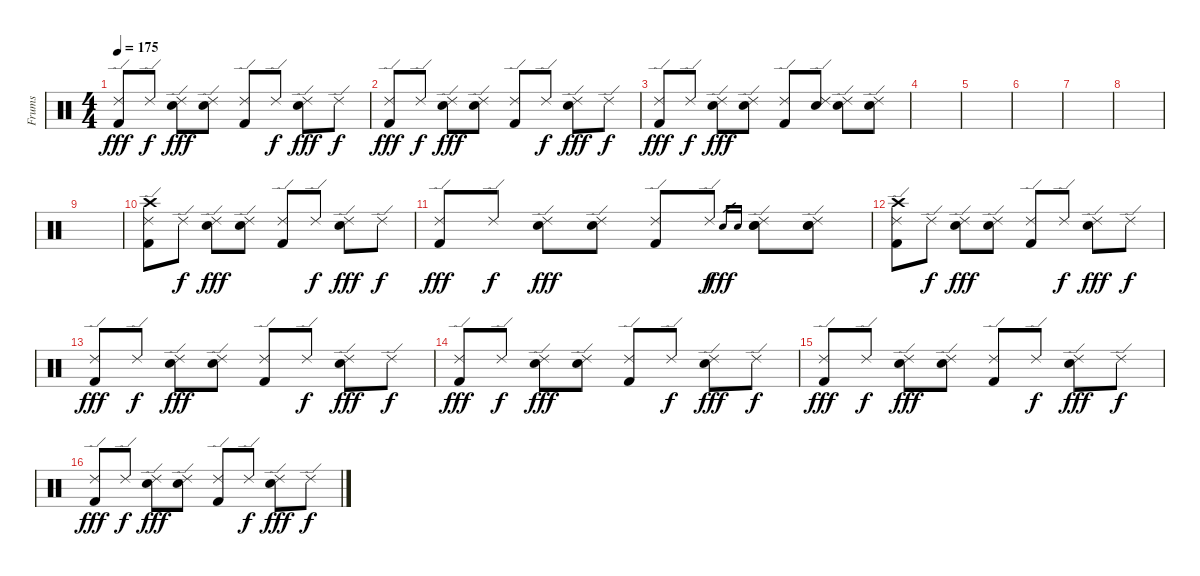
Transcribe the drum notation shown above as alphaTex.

\track ("Frums" "Frums") {instrument percussion}
\staff {score}
\articulation defaults
\ts (4 4)
\tempo 175
\clef neutral
\ks c
("Ride (edge) 2" "Kick (hit) 2").8{dy fff} "Ride (edge) 2".8{dy f} ("Ride (edge) 2" "Electric Snare (hit)").8{dy fff} ("Ride (edge) 2" "Electric Snare (hit)").8 ("Ride (edge) 2" "Kick (hit) 2").8 "Ride (edge) 2".8{dy f} ("Ride (edge) 2" "Electric Snare (hit)").8{dy fff} "Ride (edge) 2".8{dy f} |
("Ride (edge) 2" "Kick (hit) 2").8{dy fff} "Ride (edge) 2".8{dy f} ("Ride (edge) 2" "Electric Snare (hit)").8{dy fff} ("Ride (edge) 2" "Electric Snare (hit)").8 ("Ride (edge) 2" "Kick (hit) 2").8 "Ride (edge) 2".8{dy f} ("Ride (edge) 2" "Electric Snare (hit)").8{dy fff} "Ride (edge) 2".8{dy f} |
("Ride (edge) 2" "Kick (hit) 2").8{dy fff} "Ride (edge) 2".8{dy f} ("Ride (edge) 2" "Electric Snare (hit)").8{dy fff} ("Ride (edge) 2" "Electric Snare (hit)").8 ("Ride (edge) 2" "Kick (hit) 2").8 ("Ride (edge) 2" "Electric Snare (hit)").8 ("Ride (edge) 2" "Electric Snare (hit)").8 ("Ride (edge) 2" "Electric Snare (hit)").8 |
|
|
|
|
|
|
("Ride (edge) 2" "Kick (hit) 2" "Crash high (hit)").8 "Ride (edge) 2".8{dy f} ("Ride (edge) 2" "Electric Snare (hit)").8{dy fff} ("Ride (edge) 2" "Electric Snare (hit)").8 ("Ride (edge) 2" "Kick (hit) 2").8 "Ride (edge) 2".8{dy f} ("Ride (edge) 2" "Electric Snare (hit)").8{dy fff} "Ride (edge) 2".8{dy f} |
("Ride (edge) 2" "Kick (hit) 2").8{dy fff} "Ride (edge) 2".8{dy f} ("Ride (edge) 2" "Electric Snare (hit)").8{dy fff} ("Ride (edge) 2" "Electric Snare (hit)").8 ("Ride (edge) 2" "Kick (hit) 2").8 "Ride (edge) 2".8{dy f} "Electric Snare (hit)".16{gr dy fff} "Electric Snare (hit)".16{gr} ("Ride (edge) 2" "Electric Snare (hit)" "Electric Snare (hit)").8 ("Ride (edge) 2" "Electric Snare (hit)" "Electric Snare (hit)").8 |
("Ride (edge) 2" "Kick (hit) 2" "Crash high (hit)").8 "Ride (edge) 2".8{dy f} ("Ride (edge) 2" "Electric Snare (hit)").8{dy fff} ("Ride (edge) 2" "Electric Snare (hit)").8 ("Ride (edge) 2" "Kick (hit) 2").8 "Ride (edge) 2".8{dy f} ("Ride (edge) 2" "Electric Snare (hit)").8{dy fff} "Ride (edge) 2".8{dy f} |
("Ride (edge) 2" "Kick (hit) 2").8{dy fff} "Ride (edge) 2".8{dy f} ("Ride (edge) 2" "Electric Snare (hit)").8{dy fff} ("Ride (edge) 2" "Electric Snare (hit)").8 ("Ride (edge) 2" "Kick (hit) 2").8 "Ride (edge) 2".8{dy f} ("Ride (edge) 2" "Electric Snare (hit)").8{dy fff} "Ride (edge) 2".8{dy f} |
("Ride (edge) 2" "Kick (hit) 2").8{dy fff} "Ride (edge) 2".8{dy f} ("Ride (edge) 2" "Electric Snare (hit)").8{dy fff} ("Ride (edge) 2" "Electric Snare (hit)").8 ("Ride (edge) 2" "Kick (hit) 2").8 "Ride (edge) 2".8{dy f} ("Ride (edge) 2" "Electric Snare (hit)").8{dy fff} "Ride (edge) 2".8{dy f} |
("Ride (edge) 2" "Kick (hit) 2").8{dy fff} "Ride (edge) 2".8{dy f} ("Ride (edge) 2" "Electric Snare (hit)").8{dy fff} ("Ride (edge) 2" "Electric Snare (hit)").8 ("Ride (edge) 2" "Kick (hit) 2").8 "Ride (edge) 2".8{dy f} ("Ride (edge) 2" "Electric Snare (hit)").8{dy fff} "Ride (edge) 2".8{dy f} |
("Ride (edge) 2" "Kick (hit) 2").8{dy fff} "Ride (edge) 2".8{dy f} ("Ride (edge) 2" "Electric Snare (hit)").8{dy fff} ("Ride (edge) 2" "Electric Snare (hit)").8 ("Ride (edge) 2" "Kick (hit) 2").8 "Ride (edge) 2".8{dy f} ("Ride (edge) 2" "Electric Snare (hit)").8{dy fff} "Ride (edge) 2".8{dy f}
